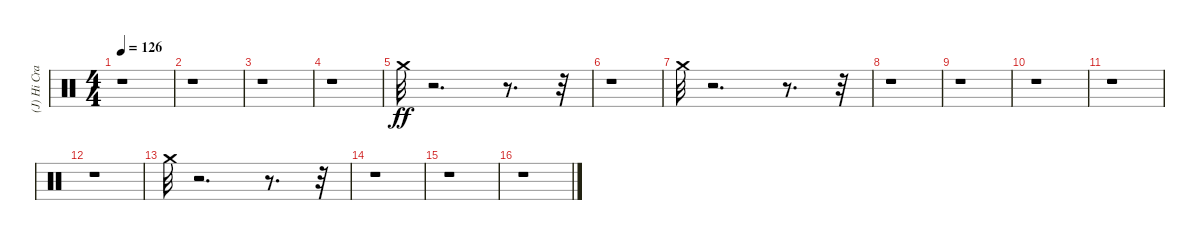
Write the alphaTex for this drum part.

\track ("(J) Hi Crash Cymbal" "(J) Hi Cra") {instrument percussion}
\staff {score}
\articulation defaults
\ts (4 4)
\tempo 126
\clef neutral
\ks c
r.1{dy ff} |
r.1 |
r.1 |
r.1 |
"Crash medium (hit)".32 r.2{d} r.8{d} r.32 |
r.1 |
"Crash medium (hit)".32 r.2{d} r.8{d} r.32 |
r.1 |
r.1 |
r.1 |
r.1 |
r.1 |
"Crash medium (hit)".32 r.2{d} r.8{d} r.32 |
r.1 |
r.1 |
r.1
